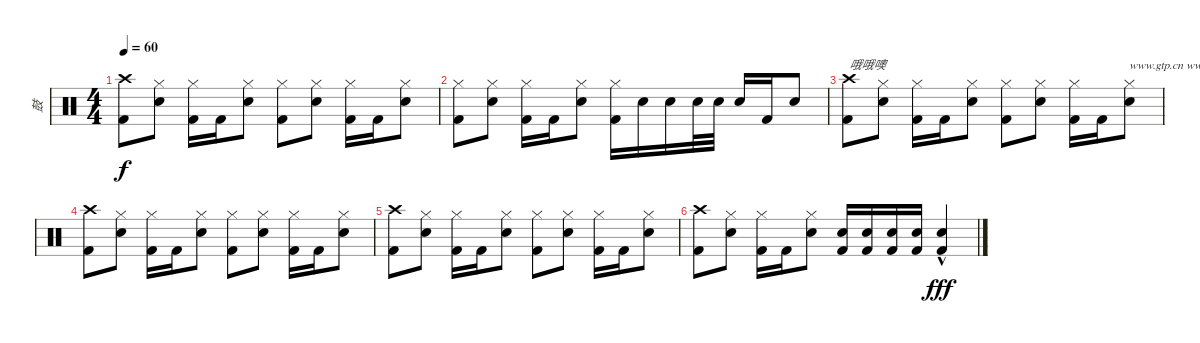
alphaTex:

\track ("鼓" "鼓") {instrument percussion}
\staff {score}
\articulation defaults
\ts (4 4)
\tempo 60
\clef neutral
\ks c
("Crash high (hit)" "Kick (hit) 2").8{dy f} ("Hi-Hat (closed)" "Snare (hit) 2").8 ("Hi-Hat (closed)" "Kick (hit) 2").16 "Kick (hit) 2".16 ("Hi-Hat (closed)" "Snare (hit) 2").8 ("Hi-Hat (closed)" "Kick (hit) 2").8 ("Hi-Hat (closed)" "Snare (hit) 2").8 ("Hi-Hat (closed)" "Kick (hit) 2").16 "Kick (hit) 2".16 ("Hi-Hat (closed)" "Snare (hit) 2").8 |
("Hi-Hat (closed)" "Kick (hit) 2").8 ("Hi-Hat (closed)" "Snare (hit) 2").8 ("Hi-Hat (closed)" "Kick (hit) 2").16 "Kick (hit) 2".16 ("Hi-Hat (closed)" "Snare (hit) 2").8 ("Hi-Hat (closed)" "Kick (hit) 2").16 "Snare (hit) 2".16 "Snare (hit) 2".16 "Snare (hit) 2".32 "Snare (hit) 2".32 "Snare (hit) 2".16 "Kick (hit) 2".16 "Snare (hit) 2".8 |
("Crash high (hit)" "Kick (hit) 2").8{txt "哦哦噢"} ("Hi-Hat (closed)" "Snare (hit) 2").8 ("Hi-Hat (closed)" "Kick (hit) 2").16 "Kick (hit) 2".16 ("Hi-Hat (closed)" "Snare (hit) 2").8 ("Hi-Hat (closed)" "Kick (hit) 2").8 ("Hi-Hat (closed)" "Snare (hit) 2").8 ("Hi-Hat (closed)" "Kick (hit) 2").16 "Kick (hit) 2".16 ("Hi-Hat (closed)" "Snare (hit) 2").8{txt "www.gtp.cn www.51gtp.com联合为您提供优秀的GTP!"} |
("Crash high (hit)" "Kick (hit) 2").8 ("Hi-Hat (closed)" "Snare (hit) 2").8 ("Hi-Hat (closed)" "Kick (hit) 2").16 "Kick (hit) 2".16 ("Hi-Hat (closed)" "Snare (hit) 2").8 ("Hi-Hat (closed)" "Kick (hit) 2").8 ("Hi-Hat (closed)" "Snare (hit) 2").8 ("Hi-Hat (closed)" "Kick (hit) 2").16 "Kick (hit) 2".16 ("Hi-Hat (closed)" "Snare (hit) 2").8 |
("Crash high (hit)" "Kick (hit) 2").8 ("Hi-Hat (closed)" "Snare (hit) 2").8 ("Hi-Hat (closed)" "Kick (hit) 2").16 "Kick (hit) 2".16 ("Hi-Hat (closed)" "Snare (hit) 2").8 ("Hi-Hat (closed)" "Kick (hit) 2").8 ("Hi-Hat (closed)" "Snare (hit) 2").8 ("Hi-Hat (closed)" "Kick (hit) 2").16 "Kick (hit) 2".16 ("Hi-Hat (closed)" "Snare (hit) 2").8 |
("Crash high (hit)" "Kick (hit) 2").8 ("Hi-Hat (closed)" "Snare (hit) 2").8 ("Hi-Hat (closed)" "Kick (hit) 2").16 "Kick (hit) 2".16 ("Hi-Hat (closed)" "Snare (hit) 2").8 ("Snare (hit) 2" "Kick (hit) 2").16 ("Snare (hit) 2" "Kick (hit) 2").16 ("Snare (hit) 2" "Kick (hit) 2").16 ("Snare (hit) 2" "Kick (hit) 2").16 ("Snare (hit) 2"{hac} "Kick (hit) 2").4{dy fff}
